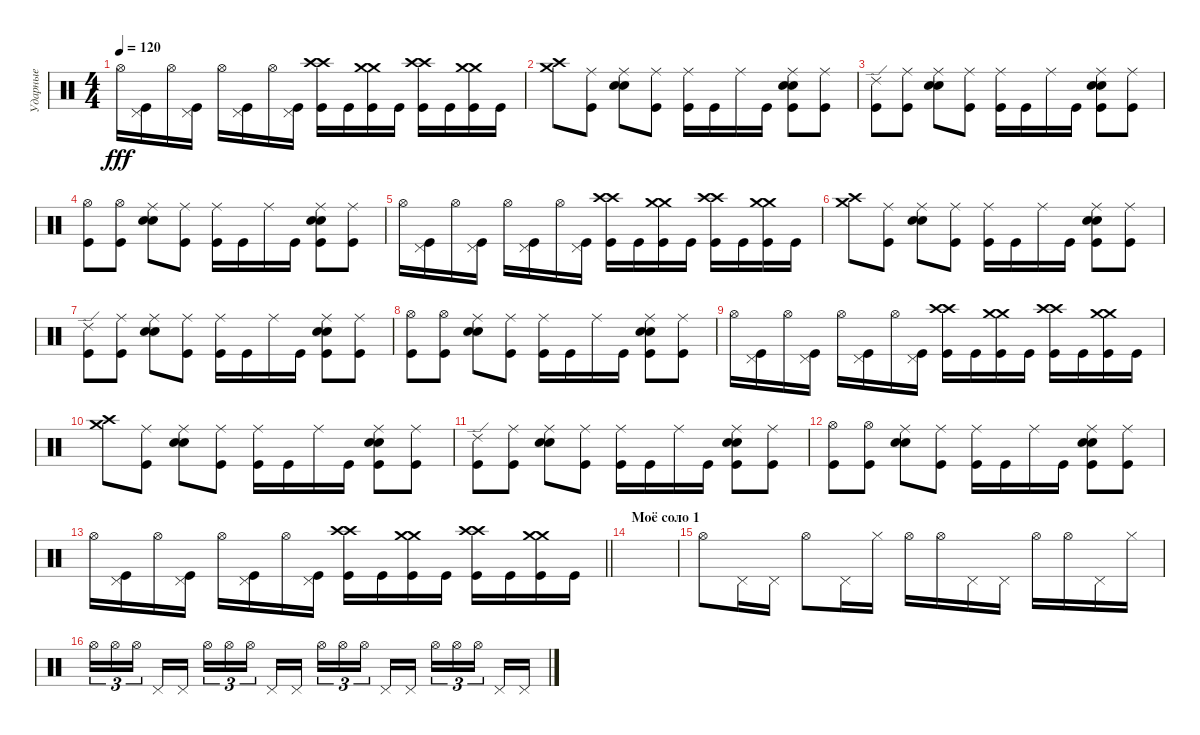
\track ("Ударные" "Ударные") {instrument percussion}
\staff {score}
\articulation defaults
\ts (4 4)
\tempo 120
\clef neutral
\ks c "Hi-Hat (open)".16{dy fff}
("Kick (hit)" "Pedal Hi-Hat (hit)").16 "Hi-Hat (open)".16 ("Kick (hit)" "Pedal Hi-Hat (hit)").16 "Hi-Hat (open)".16 ("Pedal Hi-Hat (hit)" "Kick (hit)").16 "Hi-Hat (open)".16 ("Pedal Hi-Hat (hit)" "Kick (hit)").16 ("Kick (hit)" "Crash high (hit)" "Crash high (hit)").16 "Kick (hit)".16 ("Kick (hit)" "Crash medium (hit)" "Crash medium (hit)").16 "Kick (hit)".16 ("Kick (hit)" "Crash high (hit)" "Crash high (hit)").16 "Kick (hit)".16 ("Kick (hit)" "Crash medium (hit)" "Crash medium (hit)").16 "Kick (hit)".16 |
("Crash high (hit)" "Crash medium (hit)").8 ("Ride (middle)" "Kick (hit)").8 ("Ride (middle)" "Snare (hit) 2" "Electric Snare (hit)").8 ("Ride (middle)" "Kick (hit)").8 ("Ride (middle)" "Kick (hit)").16 "Kick (hit)".16 "Ride (middle)".16 "Kick (hit)".16 ("Electric Snare (hit)" "Snare (hit) 2" "Ride (middle)" "Kick (hit)").8 ("Ride (middle)" "Kick (hit)").8 |
("Ride (edge) 2" "Kick (hit)").8 ("Ride (middle)" "Kick (hit)").8 ("Ride (middle)" "Snare (hit) 2" "Electric Snare (hit)").8 ("Ride (middle)" "Kick (hit)").8 ("Ride (middle)" "Kick (hit)").16 "Kick (hit)".16 "Ride (middle)".16 "Kick (hit)".16 ("Electric Snare (hit)" "Snare (hit) 2" "Ride (middle)" "Kick (hit)").8 ("Ride (middle)" "Kick (hit)").8 |
("Hi-Hat (open)" "Kick (hit)").8 ("Hi-Hat (open)" "Kick (hit)").8 ("Ride (middle)" "Snare (hit) 2" "Electric Snare (hit)").8 ("Ride (middle)" "Kick (hit)").8 ("Ride (middle)" "Kick (hit)").16 "Kick (hit)".16 "Ride (middle)".16 "Kick (hit)".16 ("Electric Snare (hit)" "Snare (hit) 2" "Ride (middle)" "Kick (hit)").8 ("Ride (middle)" "Kick (hit)").8 |
"Hi-Hat (open)".16 ("Kick (hit)" "Pedal Hi-Hat (hit)").16 "Hi-Hat (open)".16 ("Kick (hit)" "Pedal Hi-Hat (hit)").16 "Hi-Hat (open)".16 ("Pedal Hi-Hat (hit)" "Kick (hit)").16 "Hi-Hat (open)".16 ("Pedal Hi-Hat (hit)" "Kick (hit)").16 ("Kick (hit)" "Crash high (hit)" "Crash high (hit)").16 "Kick (hit)".16 ("Kick (hit)" "Crash medium (hit)" "Crash medium (hit)").16 "Kick (hit)".16 ("Kick (hit)" "Crash high (hit)" "Crash high (hit)").16 "Kick (hit)".16 ("Kick (hit)" "Crash medium (hit)" "Crash medium (hit)").16 "Kick (hit)".16 |
("Crash high (hit)" "Crash medium (hit)").8 ("Ride (middle)" "Kick (hit)").8 ("Ride (middle)" "Snare (hit) 2" "Electric Snare (hit)").8 ("Ride (middle)" "Kick (hit)").8 ("Ride (middle)" "Kick (hit)").16 "Kick (hit)".16 "Ride (middle)".16 "Kick (hit)".16 ("Electric Snare (hit)" "Snare (hit) 2" "Ride (middle)" "Kick (hit)").8 ("Ride (middle)" "Kick (hit)").8 |
("Ride (edge) 2" "Kick (hit)").8 ("Ride (middle)" "Kick (hit)").8 ("Ride (middle)" "Snare (hit) 2" "Electric Snare (hit)").8 ("Ride (middle)" "Kick (hit)").8 ("Ride (middle)" "Kick (hit)").16 "Kick (hit)".16 "Ride (middle)".16 "Kick (hit)".16 ("Electric Snare (hit)" "Snare (hit) 2" "Ride (middle)" "Kick (hit)").8 ("Ride (middle)" "Kick (hit)").8 |
("Hi-Hat (open)" "Kick (hit)").8 ("Hi-Hat (open)" "Kick (hit)").8 ("Ride (middle)" "Snare (hit) 2" "Electric Snare (hit)").8 ("Ride (middle)" "Kick (hit)").8 ("Ride (middle)" "Kick (hit)").16 "Kick (hit)".16 "Ride (middle)".16 "Kick (hit)".16 ("Electric Snare (hit)" "Snare (hit) 2" "Ride (middle)" "Kick (hit)").8 ("Ride (middle)" "Kick (hit)").8 |
"Hi-Hat (open)".16 ("Kick (hit)" "Pedal Hi-Hat (hit)").16 "Hi-Hat (open)".16 ("Kick (hit)" "Pedal Hi-Hat (hit)").16 "Hi-Hat (open)".16 ("Pedal Hi-Hat (hit)" "Kick (hit)").16 "Hi-Hat (open)".16 ("Pedal Hi-Hat (hit)" "Kick (hit)").16 ("Kick (hit)" "Crash high (hit)" "Crash high (hit)").16 "Kick (hit)".16 ("Kick (hit)" "Crash medium (hit)" "Crash medium (hit)").16 "Kick (hit)".16 ("Kick (hit)" "Crash high (hit)" "Crash high (hit)").16 "Kick (hit)".16 ("Kick (hit)" "Crash medium (hit)" "Crash medium (hit)").16 "Kick (hit)".16 |
("Crash high (hit)" "Crash medium (hit)").8 ("Ride (middle)" "Kick (hit)").8 ("Ride (middle)" "Snare (hit) 2" "Electric Snare (hit)").8 ("Ride (middle)" "Kick (hit)").8 ("Ride (middle)" "Kick (hit)").16 "Kick (hit)".16 "Ride (middle)".16 "Kick (hit)".16 ("Electric Snare (hit)" "Snare (hit) 2" "Ride (middle)" "Kick (hit)").8 ("Ride (middle)" "Kick (hit)").8 |
("Ride (edge) 2" "Kick (hit)").8 ("Ride (middle)" "Kick (hit)").8 ("Ride (middle)" "Snare (hit) 2" "Electric Snare (hit)").8 ("Ride (middle)" "Kick (hit)").8 ("Ride (middle)" "Kick (hit)").16 "Kick (hit)".16 "Ride (middle)".16 "Kick (hit)".16 ("Electric Snare (hit)" "Snare (hit) 2" "Ride (middle)" "Kick (hit)").8 ("Ride (middle)" "Kick (hit)").8 |
("Hi-Hat (open)" "Kick (hit)").8 ("Hi-Hat (open)" "Kick (hit)").8 ("Ride (middle)" "Snare (hit) 2" "Electric Snare (hit)").8 ("Ride (middle)" "Kick (hit)").8 ("Ride (middle)" "Kick (hit)").16 "Kick (hit)".16 "Ride (middle)".16 "Kick (hit)".16 ("Electric Snare (hit)" "Snare (hit) 2" "Ride (middle)" "Kick (hit)").8 ("Ride (middle)" "Kick (hit)").8 |
\barLineRight lightlight "Hi-Hat (open)".16
("Kick (hit)" "Pedal Hi-Hat (hit)").16 "Hi-Hat (open)".16 ("Kick (hit)" "Pedal Hi-Hat (hit)").16 "Hi-Hat (open)".16 ("Pedal Hi-Hat (hit)" "Kick (hit)").16 "Hi-Hat (open)".16 ("Pedal Hi-Hat (hit)" "Kick (hit)").16 ("Kick (hit)" "Crash high (hit)" "Crash high (hit)").16 "Kick (hit)".16 ("Kick (hit)" "Crash medium (hit)" "Crash medium (hit)").16 "Kick (hit)".16 ("Kick (hit)" "Crash high (hit)" "Crash high (hit)").16 "Kick (hit)".16 ("Kick (hit)" "Crash medium (hit)" "Crash medium (hit)").16 "Kick (hit)".16 |
\section ("" "Моё соло 1")
|
"Hi-Hat (open)".8 "Pedal Hi-Hat (hit)".16 "Pedal Hi-Hat (hit)".16 "Hi-Hat (open)".8 "Pedal Hi-Hat (hit)".16 "Hi-Hat (closed)".16 "Hi-Hat (open)".16 "Hi-Hat (open)".16 "Pedal Hi-Hat (hit)".16 "Pedal Hi-Hat (hit)".16 "Hi-Hat (open)".16 "Hi-Hat (open)".16 "Pedal Hi-Hat (hit)".16 "Hi-Hat (closed)".16 |
"Hi-Hat (open)".16{tu (3 2)} "Hi-Hat (open)".16{tu (3 2)} "Hi-Hat (open)".16{tu (3 2) beam splitsecondary} "Pedal Hi-Hat (hit)".16 "Pedal Hi-Hat (hit)".16 "Hi-Hat (open)".16{tu (3 2)} "Hi-Hat (open)".16{tu (3 2)} "Hi-Hat (open)".16{tu (3 2) beam splitsecondary} "Pedal Hi-Hat (hit)".16 "Pedal Hi-Hat (hit)".16 "Hi-Hat (open)".16{tu (3 2)} "Hi-Hat (open)".16{tu (3 2)} "Hi-Hat (open)".16{tu (3 2) beam splitsecondary} "Pedal Hi-Hat (hit)".16 "Pedal Hi-Hat (hit)".16 "Hi-Hat (open)".16{tu (3 2)} "Hi-Hat (open)".16{tu (3 2)} "Hi-Hat (open)".16{tu (3 2) beam splitsecondary} "Pedal Hi-Hat (hit)".16 "Pedal Hi-Hat (hit)".16
